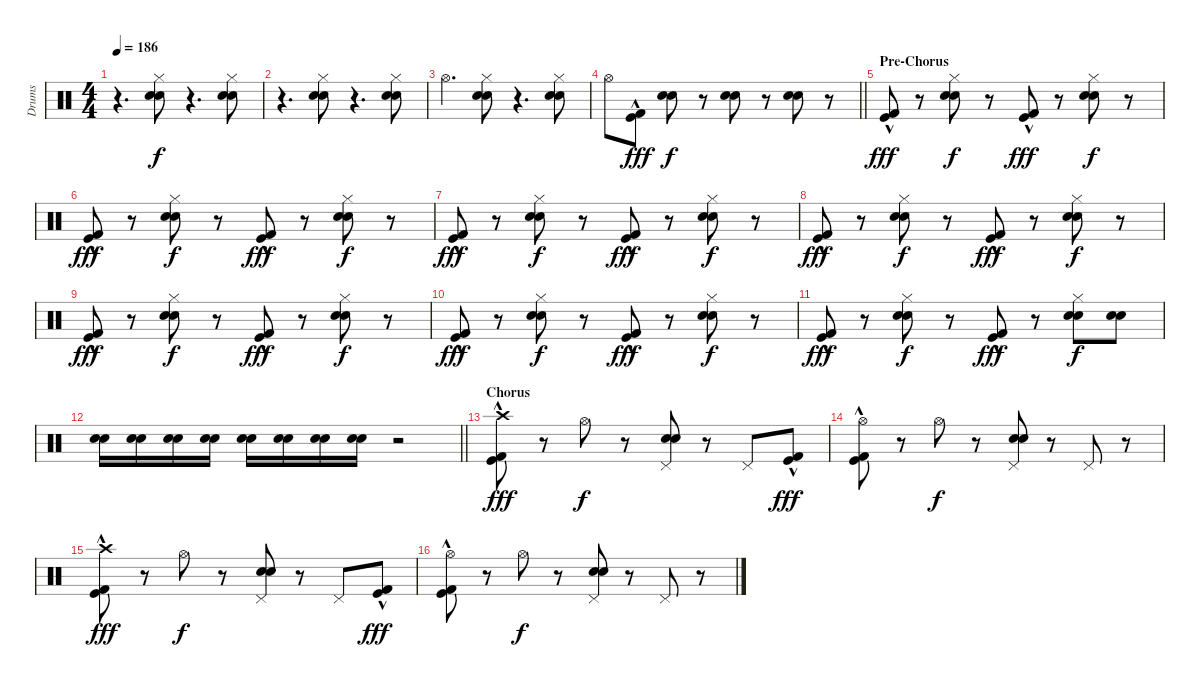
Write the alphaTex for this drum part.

\track ("Drums" "Drums") {instrument percussion}
\staff {score}
\articulation defaults
\ts (4 4)
\tempo 186
\clef neutral
\ks c
r.4{d dy f} ("Hi-Hat (closed)" "Snare (hit) 2" "Snare (hit) 2").8 r.4{d} ("Hi-Hat (closed)" "Snare (hit) 2" "Snare (hit) 2").8 |
r.4{d} ("Hi-Hat (closed)" "Snare (hit) 2" "Snare (hit) 2").8 r.4{d} ("Hi-Hat (closed)" "Snare (hit) 2" "Snare (hit) 2").8 |
"Hi-Hat (open)".4{d} ("Hi-Hat (closed)" "Snare (hit) 2" "Snare (hit) 2").8 r.4{d} ("Hi-Hat (closed)" "Snare (hit) 2" "Snare (hit) 2").8 |
\barLineRight lightlight "Hi-Hat (open)".8
("Kick (hit)"{hac} "Kick (hit) 2"{hac}).8{dy fff} ("Snare (hit) 2" "Snare (hit) 2").8{dy f} r.8 ("Snare (hit) 2" "Snare (hit) 2").8 r.8 ("Snare (hit) 2" "Snare (hit) 2").8 r.8 |
\section ("" "Pre-Chorus")
("Kick (hit)"{hac} "Kick (hit) 2"{hac}).8{dy fff} r.8 ("Hi-Hat (closed)" "Snare (hit) 2" "Snare (hit) 2").8{dy f} r.8 ("Kick (hit)"{hac} "Kick (hit) 2"{hac}).8{dy fff} r.8 ("Hi-Hat (closed)" "Snare (hit) 2" "Snare (hit) 2").8{dy f} r.8 |
("Kick (hit)"{hac} "Kick (hit) 2"{hac}).8{dy fff} r.8 ("Hi-Hat (closed)" "Snare (hit) 2" "Snare (hit) 2").8{dy f} r.8 ("Kick (hit)"{hac} "Kick (hit) 2"{hac}).8{dy fff} r.8 ("Hi-Hat (closed)" "Snare (hit) 2" "Snare (hit) 2").8{dy f} r.8 |
("Kick (hit)"{hac} "Kick (hit) 2"{hac}).8{dy fff} r.8 ("Hi-Hat (closed)" "Snare (hit) 2" "Snare (hit) 2").8{dy f} r.8 ("Kick (hit)"{hac} "Kick (hit) 2"{hac}).8{dy fff} r.8 ("Hi-Hat (closed)" "Snare (hit) 2" "Snare (hit) 2").8{dy f} r.8 |
("Kick (hit)"{hac} "Kick (hit) 2"{hac}).8{dy fff} r.8 ("Hi-Hat (closed)" "Snare (hit) 2" "Snare (hit) 2").8{dy f} r.8 ("Kick (hit)"{hac} "Kick (hit) 2"{hac}).8{dy fff} r.8 ("Hi-Hat (closed)" "Snare (hit) 2" "Snare (hit) 2").8{dy f} r.8 |
("Kick (hit)"{hac} "Kick (hit) 2"{hac}).8{dy fff} r.8 ("Hi-Hat (closed)" "Snare (hit) 2" "Snare (hit) 2").8{dy f} r.8 ("Kick (hit)"{hac} "Kick (hit) 2"{hac}).8{dy fff} r.8 ("Hi-Hat (closed)" "Snare (hit) 2" "Snare (hit) 2").8{dy f} r.8 |
("Kick (hit)"{hac} "Kick (hit) 2"{hac}).8{dy fff} r.8 ("Hi-Hat (closed)" "Snare (hit) 2" "Snare (hit) 2").8{dy f} r.8 ("Kick (hit)"{hac} "Kick (hit) 2"{hac}).8{dy fff} r.8 ("Hi-Hat (closed)" "Snare (hit) 2" "Snare (hit) 2").8{dy f} r.8 |
("Kick (hit)"{hac} "Kick (hit) 2"{hac}).8{dy fff} r.8 ("Hi-Hat (closed)" "Snare (hit) 2" "Snare (hit) 2").8{dy f} r.8 ("Kick (hit)"{hac} "Kick (hit) 2"{hac}).8{dy fff} r.8 ("Hi-Hat (closed)" "Snare (hit) 2" "Snare (hit) 2").8{dy f} ("Snare (hit) 2" "Snare (hit) 2").8 |
\barLineRight lightlight
("Snare (hit) 2" "Snare (hit) 2").16 ("Snare (hit) 2" "Snare (hit) 2").16 ("Snare (hit) 2" "Snare (hit) 2").16 ("Snare (hit) 2" "Snare (hit) 2").16 ("Snare (hit) 2" "Snare (hit) 2").16 ("Snare (hit) 2" "Snare (hit) 2").16 ("Snare (hit) 2" "Snare (hit) 2").16 ("Snare (hit) 2" "Snare (hit) 2").16 r.2 |
\section ("" "Chorus")
("Crash high (hit)" "Kick (hit)"{hac} "Kick (hit) 2"{hac}).8{dy fff} r.8 "Hi-Hat (open)".8{dy f} r.8 ("Pedal Hi-Hat (hit)" "Snare (hit) 2" "Snare (hit) 2").8 r.8 "Pedal Hi-Hat (hit)".8 ("Kick (hit)"{hac} "Kick (hit) 2"{hac}).8{dy fff} |
("Hi-Hat (open)" "Kick (hit)"{hac} "Kick (hit) 2"{hac}).8 r.8 "Hi-Hat (open)".8{dy f} r.8 ("Pedal Hi-Hat (hit)" "Snare (hit) 2" "Snare (hit) 2").8 r.8 "Pedal Hi-Hat (hit)".8 r.8 |
("Crash high (hit)" "Kick (hit)"{hac} "Kick (hit) 2"{hac}).8{dy fff} r.8 "Hi-Hat (open)".8{dy f} r.8 ("Pedal Hi-Hat (hit)" "Snare (hit) 2" "Snare (hit) 2").8 r.8 "Pedal Hi-Hat (hit)".8 ("Kick (hit)"{hac} "Kick (hit) 2"{hac}).8{dy fff} |
("Hi-Hat (open)" "Kick (hit)"{hac} "Kick (hit) 2"{hac}).8 r.8 "Hi-Hat (open)".8{dy f} r.8 ("Pedal Hi-Hat (hit)" "Snare (hit) 2" "Snare (hit) 2").8 r.8 "Pedal Hi-Hat (hit)".8 r.8
